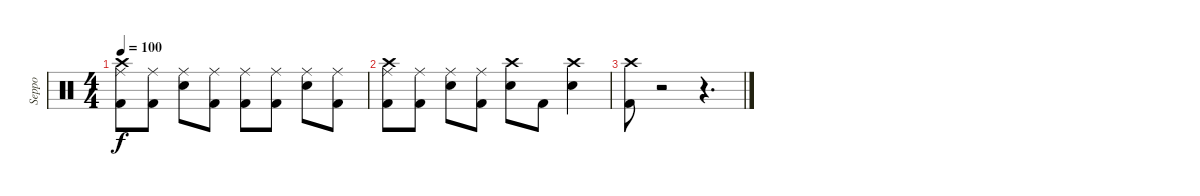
\track ("Seppo" "Seppo") {instrument percussion}
\staff {score}
\articulation defaults
\ts (4 4)
\tempo 100
\clef neutral
\ks c
("Crash high (hit)" "Ride (middle)" "Kick (hit) 2").8{dy f} ("Ride (middle)" "Kick (hit) 2").8 ("Ride (middle)" "Electric Snare (hit)").8 ("Ride (middle)" "Kick (hit) 2").8 ("Ride (middle)" "Kick (hit) 2").8 ("Ride (middle)" "Kick (hit) 2").8 ("Ride (middle)" "Electric Snare (hit)").8 ("Ride (middle)" "Kick (hit) 2").8 |
("Crash high (hit)" "Ride (middle)" "Kick (hit) 2").8 ("Ride (middle)" "Kick (hit) 2").8 ("Ride (middle)" "Electric Snare (hit)").8 ("Ride (middle)" "Kick (hit) 2").8 ("Crash high (hit)" "Electric Snare (hit)").8 "Kick (hit) 2".8 ("Crash high (hit)" "Electric Snare (hit)").4 |
("Crash high (hit)" "Kick (hit) 2").8 r.2 r.4{d}
